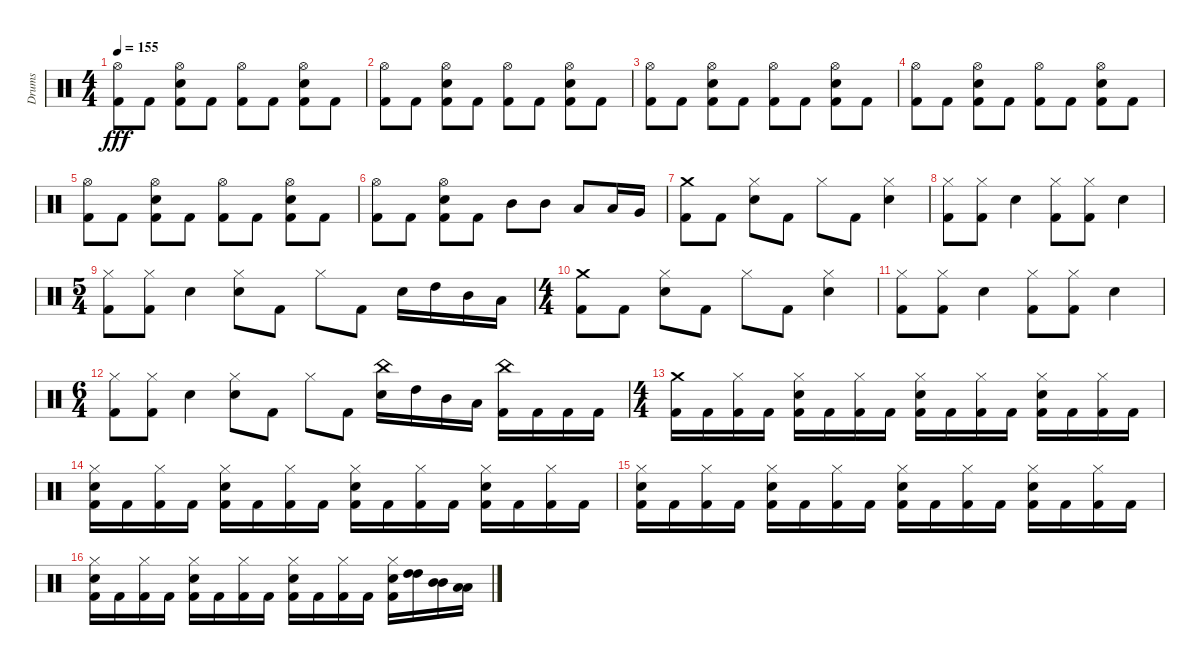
\track ("Drums" "Drums") {instrument percussion}
\staff {score}
\articulation defaults
\ts (4 4)
\tempo 155
\clef neutral
\ks c
("Hi-Hat (open)" "Kick (hit) 2").8{dy fff} "Kick (hit) 2".8 ("Electric Snare (hit)" "Hi-Hat (open)" "Kick (hit) 2").8 "Kick (hit) 2".8 ("Hi-Hat (open)" "Kick (hit) 2").8 "Kick (hit) 2".8 ("Electric Snare (hit)" "Hi-Hat (open)" "Kick (hit) 2").8 "Kick (hit) 2".8 |
("Hi-Hat (open)" "Kick (hit) 2").8 "Kick (hit) 2".8 ("Electric Snare (hit)" "Hi-Hat (open)" "Kick (hit) 2").8 "Kick (hit) 2".8 ("Hi-Hat (open)" "Kick (hit) 2").8 "Kick (hit) 2".8 ("Electric Snare (hit)" "Hi-Hat (open)" "Kick (hit) 2").8 "Kick (hit) 2".8 |
("Hi-Hat (open)" "Kick (hit) 2").8 "Kick (hit) 2".8 ("Electric Snare (hit)" "Hi-Hat (open)" "Kick (hit) 2").8 "Kick (hit) 2".8 ("Hi-Hat (open)" "Kick (hit) 2").8 "Kick (hit) 2".8 ("Electric Snare (hit)" "Hi-Hat (open)" "Kick (hit) 2").8 "Kick (hit) 2".8 |
("Hi-Hat (open)" "Kick (hit) 2").8 "Kick (hit) 2".8 ("Electric Snare (hit)" "Hi-Hat (open)" "Kick (hit) 2").8 "Kick (hit) 2".8 ("Hi-Hat (open)" "Kick (hit) 2").8 "Kick (hit) 2".8 ("Electric Snare (hit)" "Hi-Hat (open)" "Kick (hit) 2").8 "Kick (hit) 2".8 |
("Hi-Hat (open)" "Kick (hit) 2").8 "Kick (hit) 2".8 ("Electric Snare (hit)" "Hi-Hat (open)" "Kick (hit) 2").8 "Kick (hit) 2".8 ("Hi-Hat (open)" "Kick (hit) 2").8 "Kick (hit) 2".8 ("Electric Snare (hit)" "Hi-Hat (open)" "Kick (hit) 2").8 "Kick (hit) 2".8 |
("Hi-Hat (open)" "Kick (hit) 2").8 "Kick (hit) 2".8 ("Electric Snare (hit)" "Hi-Hat (open)" "Kick (hit) 2").8 "Kick (hit) 2".8 "Mid Tom (hit)".8 "Mid Tom (hit)".8 "Low Tom (hit)".8 "Low Floor Tom (hit)".16 "Very Low Tom (hit)".16 |
("Crash medium (hit)" "Kick (hit) 2").8 "Kick (hit) 2".8 ("Electric Snare (hit)" "Hi-Hat (closed)").8 "Kick (hit) 2".8 "Hi-Hat (closed)".8 "Kick (hit) 2".8 ("Electric Snare (hit)" "Hi-Hat (closed)").4 |
("Hi-Hat (closed)" "Kick (hit) 2").8 ("Hi-Hat (closed)" "Kick (hit) 2").8 "Electric Snare (hit)".4 ("Hi-Hat (closed)" "Kick (hit) 2").8 ("Hi-Hat (closed)" "Kick (hit) 2").8 "Electric Snare (hit)".4 |
\ts (5 4)
("Hi-Hat (closed)" "Kick (hit) 2").8 ("Hi-Hat (closed)" "Kick (hit) 2").8 "Electric Snare (hit)".4 ("Electric Snare (hit)" "Hi-Hat (closed)").8 "Kick (hit) 2".8 "Hi-Hat (closed)".8 "Kick (hit) 2".8 "Electric Snare (hit)".16 "High Tom (hit)".16 "Mid Tom (hit)".16 "Low Tom (hit)".16 |
\ts (4 4)
("Crash medium (hit)" "Kick (hit) 2").8 "Kick (hit) 2".8 ("Electric Snare (hit)" "Hi-Hat (closed)").8 "Kick (hit) 2".8 "Hi-Hat (closed)".8 "Kick (hit) 2".8 ("Electric Snare (hit)" "Hi-Hat (closed)").4 |
("Hi-Hat (closed)" "Kick (hit) 2").8 ("Hi-Hat (closed)" "Kick (hit) 2").8 "Electric Snare (hit)".4 ("Hi-Hat (closed)" "Kick (hit) 2").8 ("Hi-Hat (closed)" "Kick (hit) 2").8 "Electric Snare (hit)".4 |
\ts (6 4)
("Hi-Hat (closed)" "Kick (hit) 2").8 ("Hi-Hat (closed)" "Kick (hit) 2").8 "Electric Snare (hit)".4 ("Electric Snare (hit)" "Hi-Hat (closed)").8 "Kick (hit) 2".8 "Hi-Hat (closed)".8 "Kick (hit) 2".8 ("Electric Snare (hit)" "China (hit)").16 "High Tom (hit)".16 "Mid Tom (hit)".16 "Low Tom (hit)".16 ("China (hit)" "Kick (hit) 2").16 "Kick (hit) 2".16 "Kick (hit) 2".16 "Kick (hit) 2".16 |
\ts (4 4)
("Crash medium (hit)" "Kick (hit) 2").16 "Kick (hit) 2".16 ("Hi-Hat (closed)" "Kick (hit) 2").16 "Kick (hit) 2".16 ("Electric Snare (hit)" "Hi-Hat (closed)" "Kick (hit) 2").16 "Kick (hit) 2".16 ("Hi-Hat (closed)" "Kick (hit) 2").16 "Kick (hit) 2".16 ("Electric Snare (hit)" "Hi-Hat (closed)" "Kick (hit) 2").16 "Kick (hit) 2".16 ("Hi-Hat (closed)" "Kick (hit) 2").16 "Kick (hit) 2".16 ("Electric Snare (hit)" "Hi-Hat (closed)" "Kick (hit) 2").16 "Kick (hit) 2".16 ("Hi-Hat (closed)" "Kick (hit) 2").16 "Kick (hit) 2".16 |
("Electric Snare (hit)" "Hi-Hat (closed)" "Kick (hit) 2").16 "Kick (hit) 2".16 ("Hi-Hat (closed)" "Kick (hit) 2").16 "Kick (hit) 2".16 ("Electric Snare (hit)" "Hi-Hat (closed)" "Kick (hit) 2").16 "Kick (hit) 2".16 ("Hi-Hat (closed)" "Kick (hit) 2").16 "Kick (hit) 2".16 ("Electric Snare (hit)" "Hi-Hat (closed)" "Kick (hit) 2").16 "Kick (hit) 2".16 ("Hi-Hat (closed)" "Kick (hit) 2").16 "Kick (hit) 2".16 ("Electric Snare (hit)" "Hi-Hat (closed)" "Kick (hit) 2").16 "Kick (hit) 2".16 ("Hi-Hat (closed)" "Kick (hit) 2").16 "Kick (hit) 2".16 |
("Electric Snare (hit)" "Hi-Hat (closed)" "Kick (hit) 2").16 "Kick (hit) 2".16 ("Hi-Hat (closed)" "Kick (hit) 2").16 "Kick (hit) 2".16 ("Electric Snare (hit)" "Hi-Hat (closed)" "Kick (hit) 2").16 "Kick (hit) 2".16 ("Hi-Hat (closed)" "Kick (hit) 2").16 "Kick (hit) 2".16 ("Electric Snare (hit)" "Hi-Hat (closed)" "Kick (hit) 2").16 "Kick (hit) 2".16 ("Hi-Hat (closed)" "Kick (hit) 2").16 "Kick (hit) 2".16 ("Electric Snare (hit)" "Hi-Hat (closed)" "Kick (hit) 2").16 "Kick (hit) 2".16 ("Hi-Hat (closed)" "Kick (hit) 2").16 "Kick (hit) 2".16 |
("Electric Snare (hit)" "Hi-Hat (closed)" "Kick (hit) 2").16 "Kick (hit) 2".16 ("Hi-Hat (closed)" "Kick (hit) 2").16 "Kick (hit) 2".16 ("Electric Snare (hit)" "Hi-Hat (closed)" "Kick (hit) 2").16 "Kick (hit) 2".16 ("Hi-Hat (closed)" "Kick (hit) 2").16 "Kick (hit) 2".16 ("Electric Snare (hit)" "Hi-Hat (closed)" "Kick (hit) 2").16 "Kick (hit) 2".16 ("Hi-Hat (closed)" "Kick (hit) 2").16 "Kick (hit) 2".16 ("Electric Snare (hit)" "Hi-Hat (closed)" "Kick (hit) 2").16 ("High Tom (hit)" "High Tom (hit)").16 ("Mid Tom (hit)" "Mid Tom (hit)").16 ("Low Tom (hit)" "Low Tom (hit)").16
